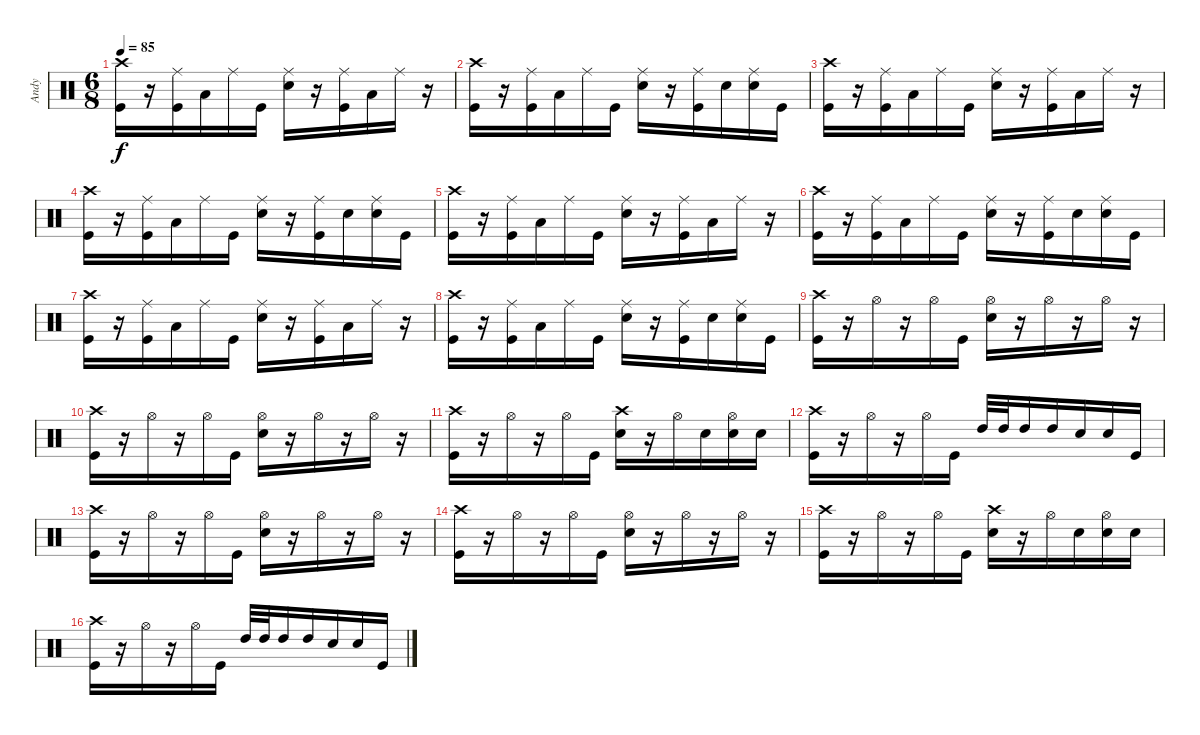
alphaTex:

\track ("Andy" "Andy") {instrument percussion}
\staff {score}
\articulation defaults
\ts (6 8)
\tempo 85
\clef neutral
\ks c
("Crash high (hit)" "Kick (hit)").16{dy f} r.16 ("Ride (middle)" "Kick (hit)").16 "Low Floor Tom (hit)".16 "Ride (middle)".16 "Kick (hit)".16 ("Ride (middle)" "Snare (hit) 2").16 r.16 ("Ride (middle)" "Kick (hit)").16 "Low Floor Tom (hit)".16 "Ride (middle)".16 r.16 |
("Crash high (hit)" "Kick (hit)").16 r.16 ("Ride (middle)" "Kick (hit)").16 "Low Floor Tom (hit)".16 "Ride (middle)".16 "Kick (hit)".16 ("Ride (middle)" "Snare (hit) 2").16 r.16 ("Ride (middle)" "Kick (hit)").16 "Snare (hit) 2".16 ("Ride (middle)" "Snare (hit) 2").16 "Kick (hit)".16 |
("Crash high (hit)" "Kick (hit)").16 r.16 ("Ride (middle)" "Kick (hit)").16 "Low Floor Tom (hit)".16 "Ride (middle)".16 "Kick (hit)".16 ("Ride (middle)" "Snare (hit) 2").16 r.16 ("Ride (middle)" "Kick (hit)").16 "Low Floor Tom (hit)".16 "Ride (middle)".16 r.16 |
("Crash high (hit)" "Kick (hit)").16 r.16 ("Ride (middle)" "Kick (hit)").16 "Low Floor Tom (hit)".16 "Ride (middle)".16 "Kick (hit)".16 ("Ride (middle)" "Snare (hit) 2").16 r.16 ("Ride (middle)" "Kick (hit)").16 "Snare (hit) 2".16 ("Ride (middle)" "Snare (hit) 2").16 "Kick (hit)".16 |
("Crash high (hit)" "Kick (hit)").16 r.16 ("Ride (middle)" "Kick (hit)").16 "Low Floor Tom (hit)".16 "Ride (middle)".16 "Kick (hit)".16 ("Ride (middle)" "Snare (hit) 2").16 r.16 ("Ride (middle)" "Kick (hit)").16 "Low Floor Tom (hit)".16 "Ride (middle)".16 r.16 |
("Crash high (hit)" "Kick (hit)").16 r.16 ("Ride (middle)" "Kick (hit)").16 "Low Floor Tom (hit)".16 "Ride (middle)".16 "Kick (hit)".16 ("Ride (middle)" "Snare (hit) 2").16 r.16 ("Ride (middle)" "Kick (hit)").16 "Snare (hit) 2".16 ("Ride (middle)" "Snare (hit) 2").16 "Kick (hit)".16 |
("Crash high (hit)" "Kick (hit)").16 r.16 ("Ride (middle)" "Kick (hit)").16 "Low Floor Tom (hit)".16 "Ride (middle)".16 "Kick (hit)".16 ("Ride (middle)" "Snare (hit) 2").16 r.16 ("Ride (middle)" "Kick (hit)").16 "Low Floor Tom (hit)".16 "Ride (middle)".16 r.16 |
("Crash high (hit)" "Kick (hit)").16 r.16 ("Ride (middle)" "Kick (hit)").16 "Low Floor Tom (hit)".16 "Ride (middle)".16 "Kick (hit)".16 ("Ride (middle)" "Snare (hit) 2").16 r.16 ("Ride (middle)" "Kick (hit)").16 "Snare (hit) 2".16 ("Ride (middle)" "Snare (hit) 2").16 "Kick (hit)".16 |
("Crash high (hit)" "Kick (hit)").16 r.16 "Hi-Hat (open)".16 r.16 "Hi-Hat (open)".16 "Kick (hit)".16 ("Hi-Hat (open)" "Snare (hit) 2").16 r.16 "Hi-Hat (open)".16 r.16 "Hi-Hat (open)".16 r.16 |
("Crash high (hit)" "Kick (hit)").16 r.16 "Hi-Hat (open)".16 r.16 "Hi-Hat (open)".16 "Kick (hit)".16 ("Hi-Hat (open)" "Snare (hit) 2").16 r.16 "Hi-Hat (open)".16 r.16 "Hi-Hat (open)".16 r.16 |
("Crash high (hit)" "Kick (hit)").16 r.16 "Hi-Hat (open)".16 r.16 "Hi-Hat (open)".16 "Kick (hit)".16 ("Crash high (hit)" "Snare (hit) 2").16 r.16 "Hi-Hat (open)".16 "Snare (hit) 2".16 ("Hi-Hat (open)" "Snare (hit) 2").16 "Snare (hit) 2".16 |
("Crash high (hit)" "Kick (hit)").16 r.16 "Hi-Hat (open)".16 r.16 "Hi-Hat (open)".16 "Kick (hit)".16 "High Tom (hit)".32 "High Tom (hit)".32 "High Tom (hit)".16 "High Tom (hit)".16 "Snare (hit) 2".16 "Snare (hit) 2".16 "Kick (hit)".16 |
("Crash high (hit)" "Kick (hit)").16 r.16 "Hi-Hat (open)".16 r.16 "Hi-Hat (open)".16 "Kick (hit)".16 ("Hi-Hat (open)" "Snare (hit) 2").16 r.16 "Hi-Hat (open)".16 r.16 "Hi-Hat (open)".16 r.16 |
("Crash high (hit)" "Kick (hit)").16 r.16 "Hi-Hat (open)".16 r.16 "Hi-Hat (open)".16 "Kick (hit)".16 ("Hi-Hat (open)" "Snare (hit) 2").16 r.16 "Hi-Hat (open)".16 r.16 "Hi-Hat (open)".16 r.16 |
("Crash high (hit)" "Kick (hit)").16 r.16 "Hi-Hat (open)".16 r.16 "Hi-Hat (open)".16 "Kick (hit)".16 ("Crash high (hit)" "Snare (hit) 2").16 r.16 "Hi-Hat (open)".16 "Snare (hit) 2".16 ("Hi-Hat (open)" "Snare (hit) 2").16 "Snare (hit) 2".16 |
("Crash high (hit)" "Kick (hit)").16 r.16 "Hi-Hat (open)".16 r.16 "Hi-Hat (open)".16 "Kick (hit)".16 "High Tom (hit)".32 "High Tom (hit)".32 "High Tom (hit)".16 "High Tom (hit)".16 "Snare (hit) 2".16 "Snare (hit) 2".16 "Kick (hit)".16
